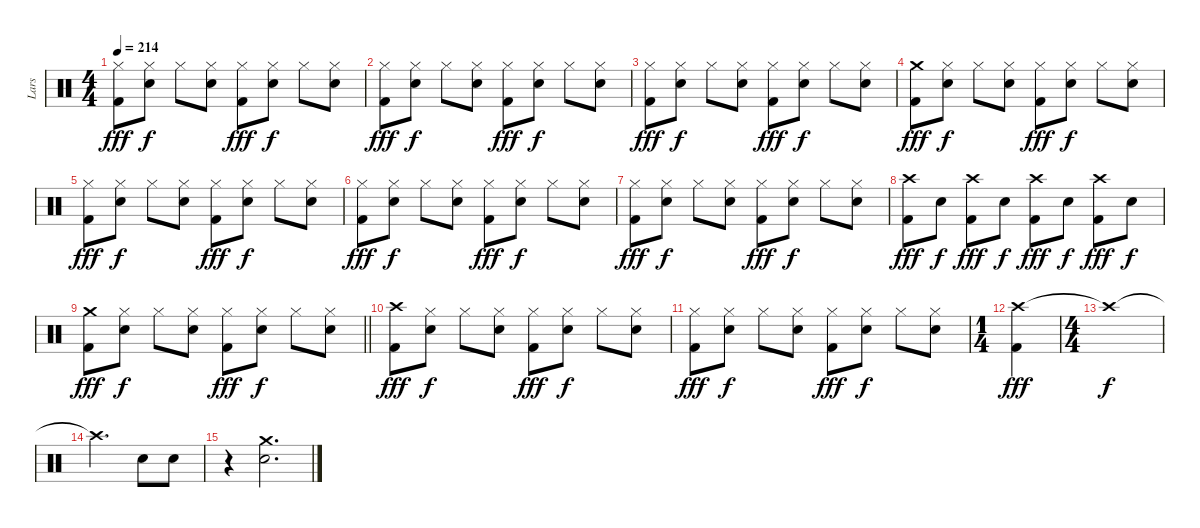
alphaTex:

\track ("Lars" "Lars") {instrument percussion}
\staff {score}
\articulation defaults
\ts (4 4)
\tempo 214
\clef neutral
\ks c
("Hi-Hat (closed)" "Kick (hit) 2").8{dy fff} ("Hi-Hat (closed)" "Snare (hit) 2").8{dy f} "Hi-Hat (closed)".8 ("Hi-Hat (closed)" "Snare (hit) 2").8 ("Hi-Hat (closed)" "Kick (hit) 2").8{dy fff} ("Hi-Hat (closed)" "Snare (hit) 2").8{dy f} "Hi-Hat (closed)".8 ("Hi-Hat (closed)" "Snare (hit) 2").8 |
("Hi-Hat (closed)" "Kick (hit) 2").8{dy fff} ("Hi-Hat (closed)" "Snare (hit) 2").8{dy f} "Hi-Hat (closed)".8 ("Hi-Hat (closed)" "Snare (hit) 2").8 ("Hi-Hat (closed)" "Kick (hit) 2").8{dy fff} ("Hi-Hat (closed)" "Snare (hit) 2").8{dy f} "Hi-Hat (closed)".8 ("Hi-Hat (closed)" "Snare (hit) 2").8 |
("Hi-Hat (closed)" "Kick (hit) 2").8{dy fff} ("Hi-Hat (closed)" "Snare (hit) 2").8{dy f} "Hi-Hat (closed)".8 ("Hi-Hat (closed)" "Snare (hit) 2").8 ("Hi-Hat (closed)" "Kick (hit) 2").8{dy fff} ("Hi-Hat (closed)" "Snare (hit) 2").8{dy f} "Hi-Hat (closed)".8 ("Hi-Hat (closed)" "Snare (hit) 2").8 |
("Crash medium (hit)" "Kick (hit) 2").8{dy fff} ("Hi-Hat (closed)" "Snare (hit) 2").8{dy f} "Hi-Hat (closed)".8 ("Hi-Hat (closed)" "Snare (hit) 2").8 ("Hi-Hat (closed)" "Kick (hit) 2").8{dy fff} ("Hi-Hat (closed)" "Snare (hit) 2").8{dy f} "Hi-Hat (closed)".8 ("Hi-Hat (closed)" "Snare (hit) 2").8 |
("Hi-Hat (closed)" "Kick (hit) 2").8{dy fff} ("Hi-Hat (closed)" "Snare (hit) 2").8{dy f} "Hi-Hat (closed)".8 ("Hi-Hat (closed)" "Snare (hit) 2").8 ("Hi-Hat (closed)" "Kick (hit) 2").8{dy fff} ("Hi-Hat (closed)" "Snare (hit) 2").8{dy f} "Hi-Hat (closed)".8 ("Hi-Hat (closed)" "Snare (hit) 2").8 |
("Hi-Hat (closed)" "Kick (hit) 2").8{dy fff} ("Hi-Hat (closed)" "Snare (hit) 2").8{dy f} "Hi-Hat (closed)".8 ("Hi-Hat (closed)" "Snare (hit) 2").8 ("Hi-Hat (closed)" "Kick (hit) 2").8{dy fff} ("Hi-Hat (closed)" "Snare (hit) 2").8{dy f} "Hi-Hat (closed)".8 ("Hi-Hat (closed)" "Snare (hit) 2").8 |
("Hi-Hat (closed)" "Kick (hit) 2").8{dy fff} ("Hi-Hat (closed)" "Snare (hit) 2").8{dy f} "Hi-Hat (closed)".8 ("Hi-Hat (closed)" "Snare (hit) 2").8 ("Hi-Hat (closed)" "Kick (hit) 2").8{dy fff} ("Hi-Hat (closed)" "Snare (hit) 2").8{dy f} "Hi-Hat (closed)".8 ("Hi-Hat (closed)" "Snare (hit) 2").8 |
("Crash high (hit)" "Kick (hit) 2").8{dy fff} "Snare (hit) 2".8{dy f} ("Crash high (hit)" "Kick (hit) 2").8{dy fff} "Snare (hit) 2".8{dy f} ("Crash high (hit)" "Kick (hit) 2").8{dy fff} "Snare (hit) 2".8{dy f} ("Crash high (hit)" "Kick (hit) 2").8{dy fff} "Snare (hit) 2".8{dy f} |
\barLineRight lightlight
("Crash medium (hit)" "Kick (hit) 2").8{dy fff} ("Hi-Hat (closed)" "Snare (hit) 2").8{dy f} "Hi-Hat (closed)".8 ("Hi-Hat (closed)" "Snare (hit) 2").8 ("Hi-Hat (closed)" "Kick (hit) 2").8{dy fff} ("Hi-Hat (closed)" "Snare (hit) 2").8{dy f} "Hi-Hat (closed)".8 ("Hi-Hat (closed)" "Snare (hit) 2").8 |
("Crash high (hit)" "Kick (hit) 2").8{dy fff} ("Hi-Hat (closed)" "Snare (hit) 2").8{dy f} "Hi-Hat (closed)".8 ("Hi-Hat (closed)" "Snare (hit) 2").8 ("Hi-Hat (closed)" "Kick (hit) 2").8{dy fff} ("Hi-Hat (closed)" "Snare (hit) 2").8{dy f} "Hi-Hat (closed)".8 ("Hi-Hat (closed)" "Snare (hit) 2").8 |
("Hi-Hat (closed)" "Kick (hit) 2").8{dy fff} ("Hi-Hat (closed)" "Snare (hit) 2").8{dy f} "Hi-Hat (closed)".8 ("Hi-Hat (closed)" "Snare (hit) 2").8 ("Hi-Hat (closed)" "Kick (hit) 2").8{dy fff} ("Hi-Hat (closed)" "Snare (hit) 2").8{dy f} "Hi-Hat (closed)".8 ("Hi-Hat (closed)" "Snare (hit) 2").8 |
\ts (1 4)
("Crash high (hit)" "Kick (hit) 2").4{dy fff} |
\ts (4 4)
"Crash high (hit)"{t}.1{dy f} |
"Crash high (hit)"{t}.2{d} "Snare (hit) 2".8 "Snare (hit) 2".8 |
r.4 ("Crash medium (hit)" "Snare (hit) 2").2{d}
